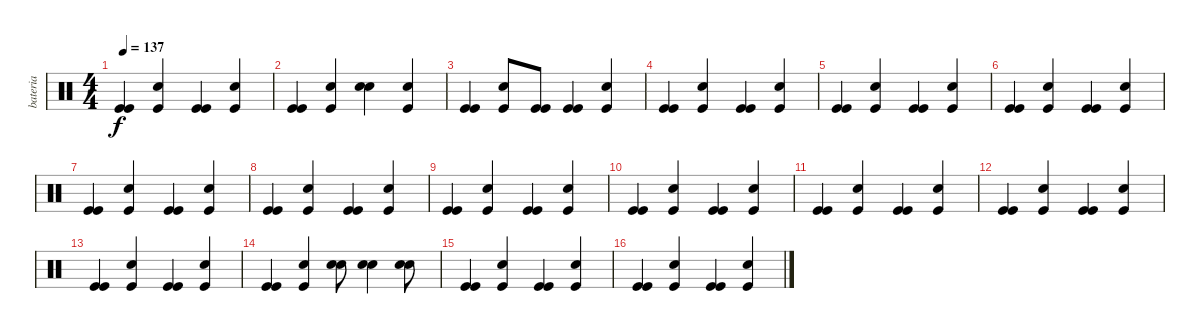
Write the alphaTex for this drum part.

\track ("bateria" "bateria") {instrument percussion}
\staff {score}
\articulation defaults
\ts (4 4)
\tempo 137
\clef neutral
\ks c
("Kick (hit)" "Kick (hit)").4{dy f} ("Kick (hit)" "Snare (hit) 2").4 ("Kick (hit)" "Kick (hit)").4 ("Snare (hit) 2" "Kick (hit)").4 |
("Kick (hit)" "Kick (hit)").4 ("Kick (hit)" "Snare (hit) 2").4 ("Snare (hit) 2" "Snare (hit) 2").4 ("Snare (hit) 2" "Kick (hit)").4 |
("Kick (hit)" "Kick (hit)").4 ("Snare (hit) 2" "Kick (hit)").8 ("Kick (hit)" "Kick (hit)").8 ("Kick (hit)" "Kick (hit)").4 ("Snare (hit) 2" "Kick (hit)").4 |
("Kick (hit)" "Kick (hit)").4 ("Kick (hit)" "Snare (hit) 2").4 ("Kick (hit)" "Kick (hit)").4 ("Snare (hit) 2" "Kick (hit)").4 |
("Kick (hit)" "Kick (hit)").4 ("Kick (hit)" "Snare (hit) 2").4 ("Kick (hit)" "Kick (hit)").4 ("Snare (hit) 2" "Kick (hit)").4 |
("Kick (hit)" "Kick (hit)").4 ("Kick (hit)" "Snare (hit) 2").4 ("Kick (hit)" "Kick (hit)").4 ("Snare (hit) 2" "Kick (hit)").4 |
("Kick (hit)" "Kick (hit)").4 ("Kick (hit)" "Snare (hit) 2").4 ("Kick (hit)" "Kick (hit)").4 ("Snare (hit) 2" "Kick (hit)").4 |
("Kick (hit)" "Kick (hit)").4 ("Kick (hit)" "Snare (hit) 2").4 ("Kick (hit)" "Kick (hit)").4 ("Snare (hit) 2" "Kick (hit)").4 |
("Kick (hit)" "Kick (hit)").4 ("Kick (hit)" "Snare (hit) 2").4 ("Kick (hit)" "Kick (hit)").4 ("Snare (hit) 2" "Kick (hit)").4 |
("Kick (hit)" "Kick (hit)").4 ("Kick (hit)" "Snare (hit) 2").4 ("Kick (hit)" "Kick (hit)").4 ("Snare (hit) 2" "Kick (hit)").4 |
("Kick (hit)" "Kick (hit)").4 ("Kick (hit)" "Snare (hit) 2").4 ("Kick (hit)" "Kick (hit)").4 ("Snare (hit) 2" "Kick (hit)").4 |
("Kick (hit)" "Kick (hit)").4 ("Kick (hit)" "Snare (hit) 2").4 ("Kick (hit)" "Kick (hit)").4 ("Snare (hit) 2" "Kick (hit)").4 |
("Kick (hit)" "Kick (hit)").4 ("Kick (hit)" "Snare (hit) 2").4 ("Kick (hit)" "Kick (hit)").4 ("Snare (hit) 2" "Kick (hit)").4 |
("Kick (hit)" "Kick (hit)").4 ("Kick (hit)" "Snare (hit) 2").4 ("Snare (hit) 2" "Snare (hit) 2").8 ("Snare (hit) 2" "Snare (hit) 2").4 ("Snare (hit) 2" "Snare (hit) 2").8 |
("Kick (hit)" "Kick (hit)").4 ("Kick (hit)" "Snare (hit) 2").4 ("Kick (hit)" "Kick (hit)").4 ("Snare (hit) 2" "Kick (hit)").4 |
("Kick (hit)" "Kick (hit)").4 ("Kick (hit)" "Snare (hit) 2").4 ("Kick (hit)" "Kick (hit)").4 ("Snare (hit) 2" "Kick (hit)").4
